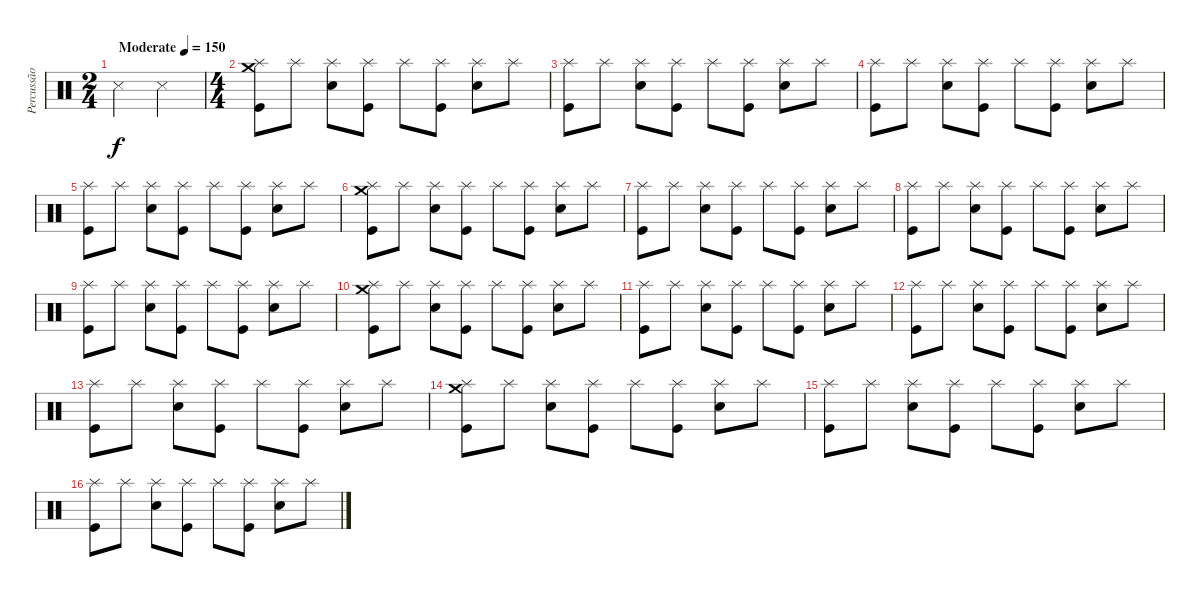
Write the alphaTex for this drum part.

\track ("Percussão" "Percussão") {instrument percussion}
\staff {score}
\articulation defaults
\ts (2 4)
\tempo (150 "Moderate")
\clef neutral
\ks c "Snare (side stick) 3".4{dy f} "Snare (side stick) 3".4
|
\ts (4 4)
("Crash medium (hit)" "Splash (hit)" "Kick (hit)").8 "Splash (hit)".8 ("Splash (hit)" "Electric Snare (hit)").8 ("Splash (hit)" "Kick (hit)").8 "Splash (hit)".8 ("Splash (hit)" "Kick (hit)").8 ("Splash (hit)" "Electric Snare (hit)").8 "Splash (hit)".8 |
("Splash (hit)" "Kick (hit)").8 "Splash (hit)".8 ("Splash (hit)" "Electric Snare (hit)").8 ("Splash (hit)" "Kick (hit)").8 "Splash (hit)".8 ("Splash (hit)" "Kick (hit)").8 ("Splash (hit)" "Electric Snare (hit)").8 "Splash (hit)".8 |
("Splash (hit)" "Kick (hit)").8 "Splash (hit)".8 ("Splash (hit)" "Electric Snare (hit)").8 ("Splash (hit)" "Kick (hit)").8 "Splash (hit)".8 ("Splash (hit)" "Kick (hit)").8 ("Splash (hit)" "Electric Snare (hit)").8 "Splash (hit)".8 |
("Splash (hit)" "Kick (hit)").8 "Splash (hit)".8 ("Splash (hit)" "Electric Snare (hit)").8 ("Splash (hit)" "Kick (hit)").8 "Splash (hit)".8 ("Splash (hit)" "Kick (hit)").8 ("Splash (hit)" "Electric Snare (hit)").8 "Splash (hit)".8 |
("Crash medium (hit)" "Splash (hit)" "Kick (hit)").8 "Splash (hit)".8 ("Splash (hit)" "Electric Snare (hit)").8 ("Splash (hit)" "Kick (hit)").8 "Splash (hit)".8 ("Splash (hit)" "Kick (hit)").8 ("Splash (hit)" "Electric Snare (hit)").8 "Splash (hit)".8 |
("Splash (hit)" "Kick (hit)").8 "Splash (hit)".8 ("Splash (hit)" "Electric Snare (hit)").8 ("Splash (hit)" "Kick (hit)").8 "Splash (hit)".8 ("Splash (hit)" "Kick (hit)").8 ("Splash (hit)" "Electric Snare (hit)").8 "Splash (hit)".8 |
("Splash (hit)" "Kick (hit)").8 "Splash (hit)".8 ("Splash (hit)" "Electric Snare (hit)").8 ("Splash (hit)" "Kick (hit)").8 "Splash (hit)".8 ("Splash (hit)" "Kick (hit)").8 ("Splash (hit)" "Electric Snare (hit)").8 "Splash (hit)".8 |
("Splash (hit)" "Kick (hit)").8 "Splash (hit)".8 ("Splash (hit)" "Electric Snare (hit)").8 ("Splash (hit)" "Kick (hit)").8 "Splash (hit)".8 ("Splash (hit)" "Kick (hit)").8 ("Splash (hit)" "Electric Snare (hit)").8 "Splash (hit)".8 |
("Crash medium (hit)" "Splash (hit)" "Kick (hit)").8 "Splash (hit)".8 ("Splash (hit)" "Electric Snare (hit)").8 ("Splash (hit)" "Kick (hit)").8 "Splash (hit)".8 ("Splash (hit)" "Kick (hit)").8 ("Splash (hit)" "Electric Snare (hit)").8 "Splash (hit)".8 |
("Splash (hit)" "Kick (hit)").8 "Splash (hit)".8 ("Splash (hit)" "Electric Snare (hit)").8 ("Splash (hit)" "Kick (hit)").8 "Splash (hit)".8 ("Splash (hit)" "Kick (hit)").8 ("Splash (hit)" "Electric Snare (hit)").8 "Splash (hit)".8 |
("Splash (hit)" "Kick (hit)").8 "Splash (hit)".8 ("Splash (hit)" "Electric Snare (hit)").8 ("Splash (hit)" "Kick (hit)").8 "Splash (hit)".8 ("Splash (hit)" "Kick (hit)").8 ("Splash (hit)" "Electric Snare (hit)").8 "Splash (hit)".8 |
("Splash (hit)" "Kick (hit)").8 "Splash (hit)".8 ("Splash (hit)" "Electric Snare (hit)").8 ("Splash (hit)" "Kick (hit)").8 "Splash (hit)".8 ("Splash (hit)" "Kick (hit)").8 ("Splash (hit)" "Electric Snare (hit)").8 "Splash (hit)".8 |
("Crash medium (hit)" "Splash (hit)" "Kick (hit)").8 "Splash (hit)".8 ("Splash (hit)" "Electric Snare (hit)").8 ("Splash (hit)" "Kick (hit)").8 "Splash (hit)".8 ("Splash (hit)" "Kick (hit)").8 ("Splash (hit)" "Electric Snare (hit)").8 "Splash (hit)".8 |
("Splash (hit)" "Kick (hit)").8 "Splash (hit)".8 ("Splash (hit)" "Electric Snare (hit)").8 ("Splash (hit)" "Kick (hit)").8 "Splash (hit)".8 ("Splash (hit)" "Kick (hit)").8 ("Splash (hit)" "Electric Snare (hit)").8 "Splash (hit)".8 |
("Splash (hit)" "Kick (hit)").8 "Splash (hit)".8 ("Splash (hit)" "Electric Snare (hit)").8 ("Splash (hit)" "Kick (hit)").8 "Splash (hit)".8 ("Splash (hit)" "Kick (hit)").8 ("Splash (hit)" "Electric Snare (hit)").8 "Splash (hit)".8
